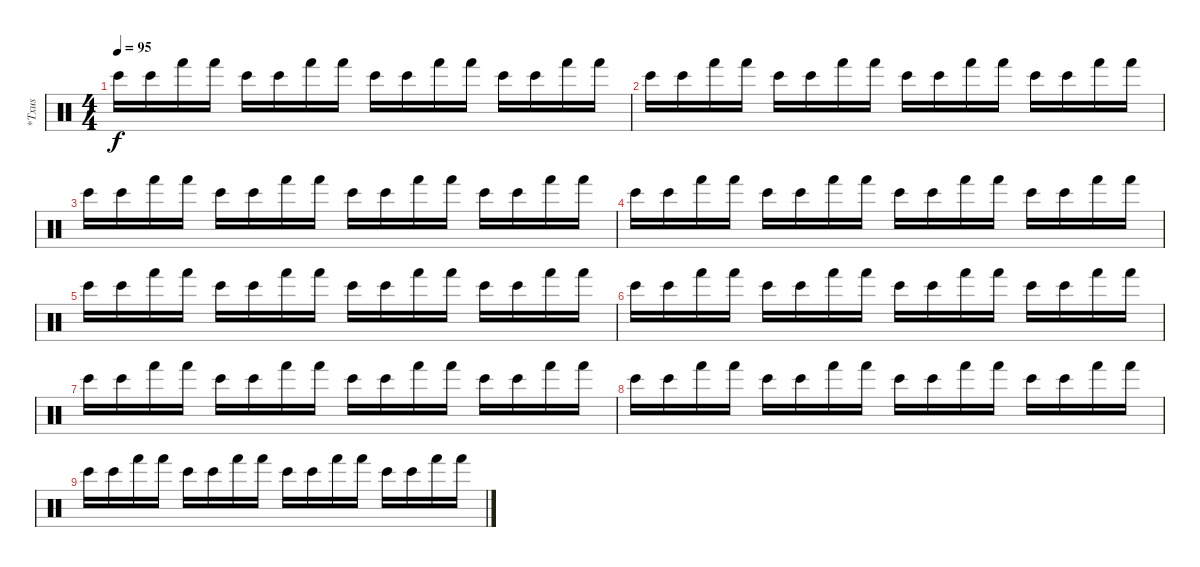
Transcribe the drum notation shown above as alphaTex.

\track ("*Txus" "*Txus") {instrument percussion}
\staff {score}
\articulation defaults
\ts (4 4)
\tempo 95
\clef neutral
\ks c "Bongo High (hit)".16{dy f} "Bongo High (hit)".16 "Hand (hit)".16 "Hand (hit)".16 "Bongo High (hit)".16 "Bongo High (hit)".16 "Hand (hit)".16 "Hand (hit)".16 "Bongo High (hit)".16 "Bongo High (hit)".16 "Hand (hit)".16 "Hand (hit)".16 "Bongo High (hit)".16 "Bongo High (hit)".16 "Hand (hit)".16 "Hand (hit)".16
|
"Bongo High (hit)".16 "Bongo High (hit)".16 "Hand (hit)".16 "Hand (hit)".16 "Bongo High (hit)".16 "Bongo High (hit)".16 "Hand (hit)".16 "Hand (hit)".16 "Bongo High (hit)".16 "Bongo High (hit)".16 "Hand (hit)".16 "Hand (hit)".16 "Bongo High (hit)".16 "Bongo High (hit)".16 "Hand (hit)".16 "Hand (hit)".16 |
"Bongo High (hit)".16 "Bongo High (hit)".16 "Hand (hit)".16 "Hand (hit)".16 "Bongo High (hit)".16 "Bongo High (hit)".16 "Hand (hit)".16 "Hand (hit)".16 "Bongo High (hit)".16 "Bongo High (hit)".16 "Hand (hit)".16 "Hand (hit)".16 "Bongo High (hit)".16 "Bongo High (hit)".16 "Hand (hit)".16 "Hand (hit)".16 |
"Bongo High (hit)".16 "Bongo High (hit)".16 "Hand (hit)".16 "Hand (hit)".16 "Bongo High (hit)".16 "Bongo High (hit)".16 "Hand (hit)".16 "Hand (hit)".16 "Bongo High (hit)".16 "Bongo High (hit)".16 "Hand (hit)".16 "Hand (hit)".16 "Bongo High (hit)".16 "Bongo High (hit)".16 "Hand (hit)".16 "Hand (hit)".16 |
"Bongo High (hit)".16 "Bongo High (hit)".16 "Hand (hit)".16 "Hand (hit)".16 "Bongo High (hit)".16 "Bongo High (hit)".16 "Hand (hit)".16 "Hand (hit)".16 "Bongo High (hit)".16 "Bongo High (hit)".16 "Hand (hit)".16 "Hand (hit)".16 "Bongo High (hit)".16 "Bongo High (hit)".16 "Hand (hit)".16 "Hand (hit)".16 |
"Bongo High (hit)".16 "Bongo High (hit)".16 "Hand (hit)".16 "Hand (hit)".16 "Bongo High (hit)".16 "Bongo High (hit)".16 "Hand (hit)".16 "Hand (hit)".16 "Bongo High (hit)".16 "Bongo High (hit)".16 "Hand (hit)".16 "Hand (hit)".16 "Bongo High (hit)".16 "Bongo High (hit)".16 "Hand (hit)".16 "Hand (hit)".16 |
"Bongo High (hit)".16 "Bongo High (hit)".16 "Hand (hit)".16 "Hand (hit)".16 "Bongo High (hit)".16 "Bongo High (hit)".16 "Hand (hit)".16 "Hand (hit)".16 "Bongo High (hit)".16 "Bongo High (hit)".16 "Hand (hit)".16 "Hand (hit)".16 "Bongo High (hit)".16 "Bongo High (hit)".16 "Hand (hit)".16 "Hand (hit)".16 |
"Bongo High (hit)".16 "Bongo High (hit)".16 "Hand (hit)".16 "Hand (hit)".16 "Bongo High (hit)".16 "Bongo High (hit)".16 "Hand (hit)".16 "Hand (hit)".16 "Bongo High (hit)".16 "Bongo High (hit)".16 "Hand (hit)".16 "Hand (hit)".16 "Bongo High (hit)".16 "Bongo High (hit)".16 "Hand (hit)".16 "Hand (hit)".16 |
"Bongo High (hit)".16 "Bongo High (hit)".16 "Hand (hit)".16 "Hand (hit)".16 "Bongo High (hit)".16 "Bongo High (hit)".16 "Hand (hit)".16 "Hand (hit)".16 "Bongo High (hit)".16 "Bongo High (hit)".16 "Hand (hit)".16 "Hand (hit)".16 "Bongo High (hit)".16 "Bongo High (hit)".16 "Hand (hit)".16 "Hand (hit)".16
